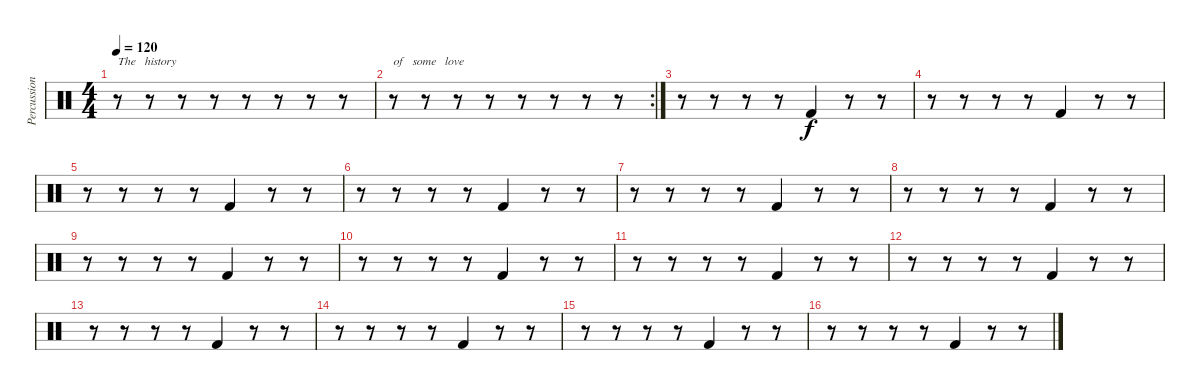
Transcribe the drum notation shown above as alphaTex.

\track ("Percussion" "Percussion") {instrument percussion}
\staff {score}
\articulation defaults
\ts (4 4)
\tempo 120
\clef neutral
\ks c
r.8{txt "The   history" dy f} r.8 r.8 r.8 r.8 r.8 r.8 r.8 |
\rc 2
r.8{txt "of   some   love"} r.8 r.8 r.8 r.8 r.8 r.8 r.8 |
r.8 r.8 r.8 r.8 "Kick (hit) 2".4 r.8 r.8 |
r.8 r.8 r.8 r.8 "Kick (hit) 2".4 r.8 r.8 |
r.8 r.8 r.8 r.8 "Kick (hit) 2".4 r.8 r.8 |
r.8 r.8 r.8 r.8 "Kick (hit) 2".4 r.8 r.8 |
r.8 r.8 r.8 r.8 "Kick (hit) 2".4 r.8 r.8 |
r.8 r.8 r.8 r.8 "Kick (hit) 2".4 r.8 r.8 |
r.8 r.8 r.8 r.8 "Kick (hit) 2".4 r.8 r.8 |
r.8 r.8 r.8 r.8 "Kick (hit) 2".4 r.8 r.8 |
r.8 r.8 r.8 r.8 "Kick (hit) 2".4 r.8 r.8 |
r.8 r.8 r.8 r.8 "Kick (hit) 2".4 r.8 r.8 |
r.8 r.8 r.8 r.8 "Kick (hit) 2".4 r.8 r.8 |
r.8 r.8 r.8 r.8 "Kick (hit) 2".4 r.8 r.8 |
r.8 r.8 r.8 r.8 "Kick (hit) 2".4 r.8 r.8 |
r.8 r.8 r.8 r.8 "Kick (hit) 2".4 r.8 r.8
